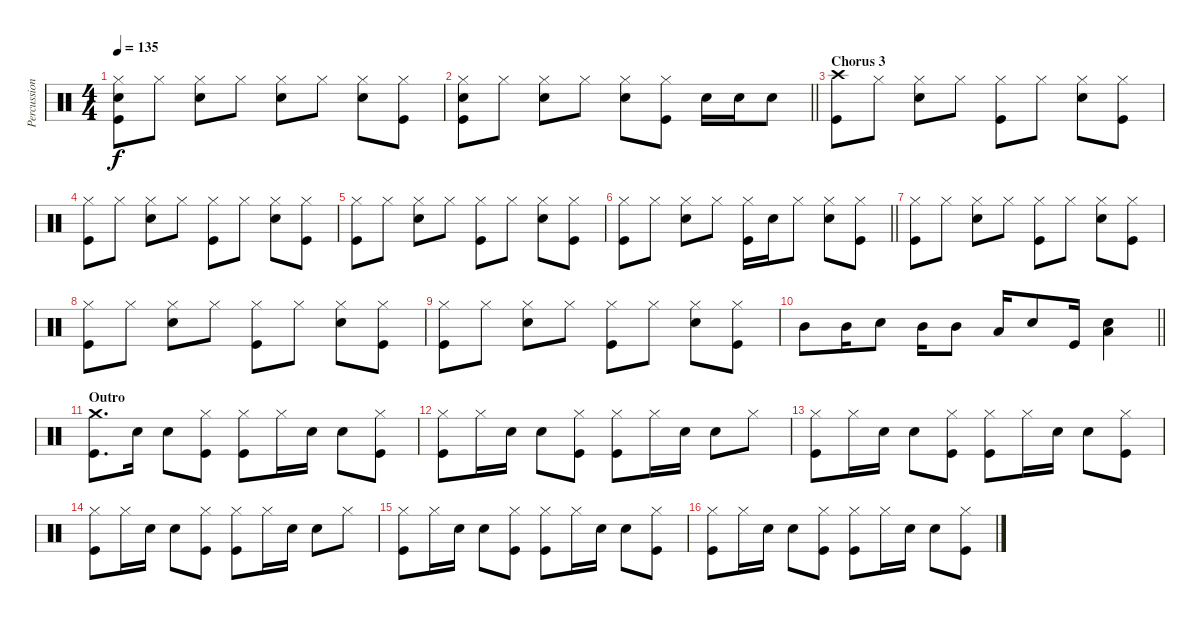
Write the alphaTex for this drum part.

\track ("Percussion" "Percussion") {instrument percussion}
\staff {score}
\articulation defaults
\ts (4 4)
\tempo 135
\clef neutral
\ks c
("Kick (hit)" "Hi-Hat (closed)" "Snare (hit) 2").8{dy f} "Hi-Hat (closed)".8 ("Hi-Hat (closed)" "Snare (hit) 2").8 "Hi-Hat (closed)".8 ("Hi-Hat (closed)" "Snare (hit) 2").8 "Hi-Hat (closed)".8 ("Hi-Hat (closed)" "Snare (hit) 2").8 ("Kick (hit)" "Hi-Hat (closed)").8 |
\barLineRight lightlight
("Kick (hit)" "Hi-Hat (closed)" "Snare (hit) 2").8 "Hi-Hat (closed)".8 ("Hi-Hat (closed)" "Snare (hit) 2").8 "Hi-Hat (closed)".8 ("Hi-Hat (closed)" "Snare (hit) 2").8 ("Kick (hit)" "Hi-Hat (closed)").8 "Snare (hit) 2".16 "Snare (hit) 2".16 "Snare (hit) 2".8 |
\section ("" "Chorus 3")
("Kick (hit)" "Crash high (hit)").8 "Hi-Hat (closed)".8 ("Hi-Hat (closed)" "Snare (hit) 2").8 "Hi-Hat (closed)".8 ("Kick (hit)" "Hi-Hat (closed)").8 "Hi-Hat (closed)".8 ("Hi-Hat (closed)" "Snare (hit) 2").8 ("Kick (hit)" "Hi-Hat (closed)").8 |
("Kick (hit)" "Hi-Hat (closed)").8 "Hi-Hat (closed)".8 ("Hi-Hat (closed)" "Snare (hit) 2").8 "Hi-Hat (closed)".8 ("Kick (hit)" "Hi-Hat (closed)").8 "Hi-Hat (closed)".8 ("Hi-Hat (closed)" "Snare (hit) 2").8 ("Kick (hit)" "Hi-Hat (closed)").8 |
("Kick (hit)" "Hi-Hat (closed)").8 "Hi-Hat (closed)".8 ("Hi-Hat (closed)" "Snare (hit) 2").8 "Hi-Hat (closed)".8 ("Kick (hit)" "Hi-Hat (closed)").8 "Hi-Hat (closed)".8 ("Hi-Hat (closed)" "Snare (hit) 2").8 ("Kick (hit)" "Hi-Hat (closed)").8 |
\barLineRight lightlight
("Kick (hit)" "Hi-Hat (closed)").8 "Hi-Hat (closed)".8 ("Hi-Hat (closed)" "Snare (hit) 2").8 "Hi-Hat (closed)".8 ("Kick (hit)" "Hi-Hat (closed)").16 "Snare (hit) 2".16 "Hi-Hat (closed)".8 ("Hi-Hat (closed)" "Snare (hit) 2").8 ("Kick (hit)" "Hi-Hat (closed)").8 |
("Kick (hit)" "Hi-Hat (closed)").8 "Hi-Hat (closed)".8 ("Hi-Hat (closed)" "Snare (hit) 2").8 "Hi-Hat (closed)".8 ("Kick (hit)" "Hi-Hat (closed)").8 "Hi-Hat (closed)".8 ("Hi-Hat (closed)" "Snare (hit) 2").8 ("Kick (hit)" "Hi-Hat (closed)").8 |
("Kick (hit)" "Hi-Hat (closed)").8 "Hi-Hat (closed)".8 ("Hi-Hat (closed)" "Snare (hit) 2").8 "Hi-Hat (closed)".8 ("Kick (hit)" "Hi-Hat (closed)").8 "Hi-Hat (closed)".8 ("Hi-Hat (closed)" "Snare (hit) 2").8 ("Kick (hit)" "Hi-Hat (closed)").8 |
("Kick (hit)" "Hi-Hat (closed)").8 "Hi-Hat (closed)".8 ("Hi-Hat (closed)" "Snare (hit) 2").8 "Hi-Hat (closed)".8 ("Kick (hit)" "Hi-Hat (closed)").8 "Hi-Hat (closed)".8 ("Hi-Hat (closed)" "Snare (hit) 2").8 ("Kick (hit)" "Hi-Hat (closed)").8 |
\barLineRight lightlight "Mid Tom (hit)".8 "Mid Tom (hit)".16 "Snare (hit) 2".8 "Mid Tom (hit)".16 "Mid Tom (hit)".8 "Low Tom (hit)".16 "Snare (hit) 2".8 "Kick (hit)".16
("Low Tom (hit)" "Snare (hit) 2").4 |
\section ("" "Outro")
("Kick (hit)" "Crash medium (hit)").8{d} "Snare (hit) 2".16 "Snare (hit) 2".8 ("Kick (hit)" "Hi-Hat (closed)").8 ("Kick (hit)" "Hi-Hat (closed)").8 "Hi-Hat (closed)".16 "Snare (hit) 2".16 "Snare (hit) 2".8 ("Kick (hit)" "Hi-Hat (closed)").8 |
("Kick (hit)" "Hi-Hat (closed)").8 "Hi-Hat (closed)".16 "Snare (hit) 2".16 "Snare (hit) 2".8 ("Kick (hit)" "Hi-Hat (closed)").8 ("Kick (hit)" "Hi-Hat (closed)").8 "Hi-Hat (closed)".16 "Snare (hit) 2".16 "Snare (hit) 2".8 "Hi-Hat (closed)".8 |
("Kick (hit)" "Hi-Hat (closed)").8 "Hi-Hat (closed)".16 "Snare (hit) 2".16 "Snare (hit) 2".8 ("Kick (hit)" "Hi-Hat (closed)").8 ("Kick (hit)" "Hi-Hat (closed)").8 "Hi-Hat (closed)".16 "Snare (hit) 2".16 "Snare (hit) 2".8 ("Kick (hit)" "Hi-Hat (closed)").8 |
("Kick (hit)" "Hi-Hat (closed)").8 "Hi-Hat (closed)".16 "Snare (hit) 2".16 "Snare (hit) 2".8 ("Kick (hit)" "Hi-Hat (closed)").8 ("Kick (hit)" "Hi-Hat (closed)").8 "Hi-Hat (closed)".16 "Snare (hit) 2".16 "Snare (hit) 2".8 "Hi-Hat (closed)".8 |
("Kick (hit)" "Hi-Hat (closed)").8 "Hi-Hat (closed)".16 "Snare (hit) 2".16 "Snare (hit) 2".8 ("Kick (hit)" "Hi-Hat (closed)").8 ("Kick (hit)" "Hi-Hat (closed)").8 "Hi-Hat (closed)".16 "Snare (hit) 2".16 "Snare (hit) 2".8 ("Kick (hit)" "Hi-Hat (closed)").8 |
("Kick (hit)" "Hi-Hat (closed)").8 "Hi-Hat (closed)".16 "Snare (hit) 2".16 "Snare (hit) 2".8 ("Kick (hit)" "Hi-Hat (closed)").8 ("Kick (hit)" "Hi-Hat (closed)").8 "Hi-Hat (closed)".16 "Snare (hit) 2".16 "Snare (hit) 2".8 ("Kick (hit)" "Hi-Hat (closed)").8
